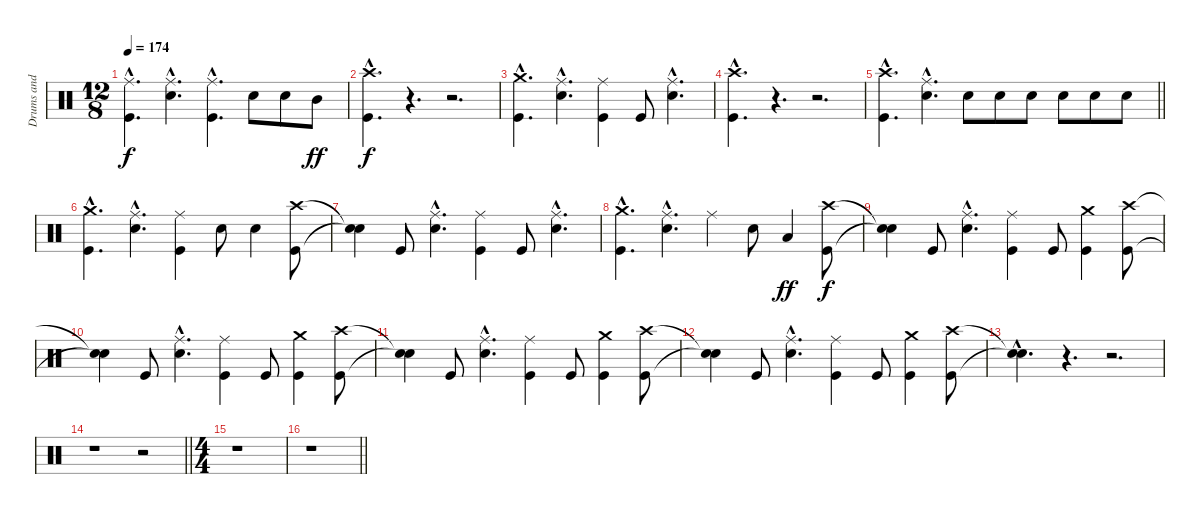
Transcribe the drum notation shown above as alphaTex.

\track ("Drums and percussion" "Drums and ") {instrument percussion}
\staff {score}
\articulation defaults
\ts (12 8)
\tempo 174
\clef neutral
\ks c
("Ride (middle)"{hac} "Kick (hit)"{hac}).4{d dy f} ("Ride (middle)"{hac} "Snare (hit) 2"{hac}).4{d} ("Ride (middle)"{hac} "Kick (hit)"{hac}).4{d} "Snare (hit) 2".8 "Snare (hit) 2".8 "Mid Tom (hit)".8{dy ff} |
("Crash high (hit)"{hac} "Kick (hit)"{hac}).4{d dy f} r.4{d} r.2{d} |
("Crash medium (hit)"{hac} "Kick (hit)"{hac}).4{d} ("Ride (middle)"{hac} "Snare (hit) 2"{hac}).4{d} ("Ride (middle)" "Kick (hit)").4 "Kick (hit)".8 ("Ride (middle)"{hac} "Snare (hit) 2"{hac}).4{d} |
("Crash high (hit)"{hac} "Kick (hit)"{hac}).4{d} r.4{d} r.2{d} |
\barLineRight lightlight
("Crash high (hit)"{hac} "Kick (hit)"{hac}).4{d} ("Ride (middle)"{hac} "Snare (hit) 2"{hac}).4{d} "Snare (hit) 2".8 "Snare (hit) 2".8 "Snare (hit) 2".8 "Snare (hit) 2".8 "Snare (hit) 2".8 "Snare (hit) 2".8 |
("Crash medium (hit)"{hac} "Kick (hit)"{hac}).4{d} ("Ride (middle)"{hac} "Snare (hit) 2"{hac}).4{d} ("Ride (middle)" "Kick (hit)").4 "Snare (hit) 2".8 "Snare (hit) 2".4 ("Crash high (hit)" "Kick (hit)").8 |
("Snare (hit)"{t} "Snare (hit)"{t}).4 "Kick (hit)".8 ("Ride (middle)"{hac} "Snare (hit) 2"{hac}).4{d} ("Ride (middle)" "Kick (hit)").4 "Kick (hit)".8 ("Ride (middle)"{hac} "Snare (hit) 2"{hac}).4{d} |
("Crash medium (hit)"{hac} "Kick (hit)"{hac}).4{d} ("Ride (middle)"{hac} "Snare (hit) 2"{hac}).4{d} "Ride (middle)".4 "Snare (hit) 2".8 "Low Tom (hit)".4{dy ff} ("Crash high (hit)" "Kick (hit)").8{dy f} |
("Snare (hit)"{t} "Snare (hit)"{t}).4 "Kick (hit)".8 ("Ride (middle)"{hac} "Snare (hit) 2"{hac}).4{d} ("Ride (middle)" "Kick (hit)").4 "Kick (hit)".8 ("Crash medium (hit)" "Kick (hit)").4 ("Crash high (hit)" "Kick (hit)").8 |
("Snare (hit)"{t} "Snare (hit)"{t}).4 "Kick (hit)".8 ("Ride (middle)"{hac} "Snare (hit) 2"{hac}).4{d} ("Ride (middle)" "Kick (hit)").4 "Kick (hit)".8 ("Crash medium (hit)" "Kick (hit)").4 ("Crash high (hit)" "Kick (hit)").8 |
("Snare (hit)"{t} "Snare (hit)"{t}).4 "Kick (hit)".8 ("Ride (middle)"{hac} "Snare (hit) 2"{hac}).4{d} ("Ride (middle)" "Kick (hit)").4 "Kick (hit)".8 ("Crash medium (hit)" "Kick (hit)").4 ("Crash high (hit)" "Kick (hit)").8 |
("Snare (hit)"{t} "Snare (hit)"{t}).4 "Kick (hit)".8 ("Ride (middle)"{hac} "Snare (hit) 2"{hac}).4{d} ("Ride (middle)" "Kick (hit)").4 "Kick (hit)".8 ("Crash medium (hit)" "Kick (hit)").4 ("Crash high (hit)" "Kick (hit)").8 |
("Snare (hit)"{hac t} "Snare (hit)"{hac t}).4{d} r.4{d} r.2{d} |
\barLineRight lightlight
r.1 r.2 |
\ts (4 4)
r.1 |
\barLineRight lightlight
r.1
